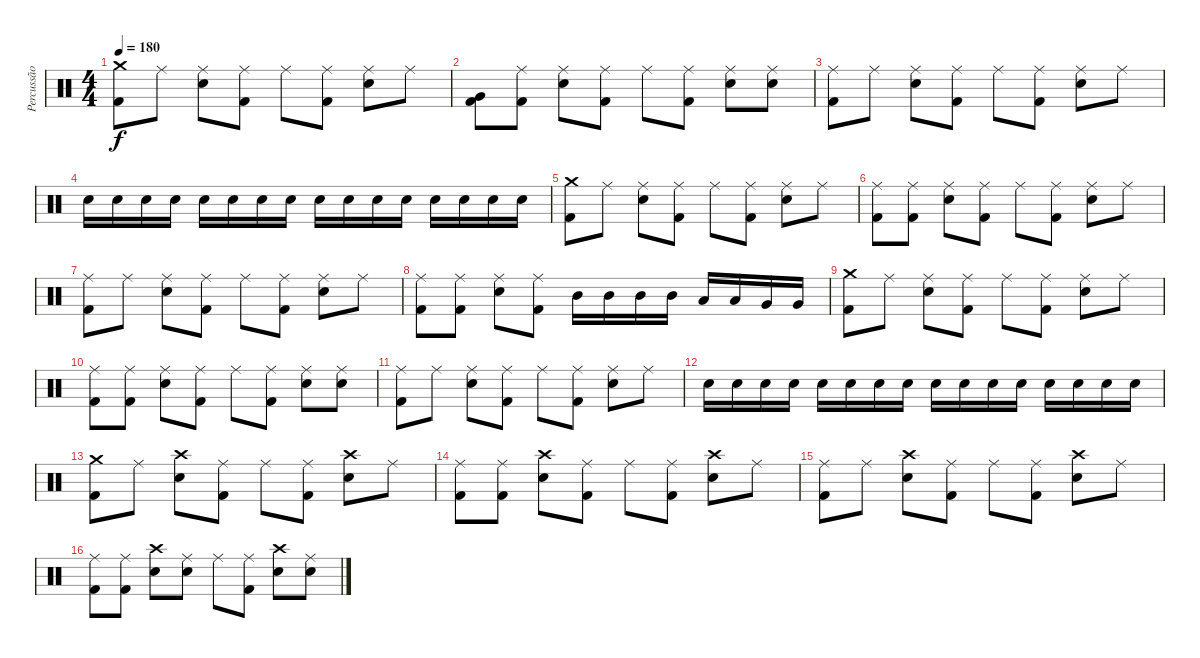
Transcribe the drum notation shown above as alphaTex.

\track ("Percussão" "Percussão") {instrument percussion}
\staff {score}
\articulation defaults
\ts (4 4)
\tempo 180
\clef neutral
\ks c
("Crash medium (hit)" "Kick (hit) 2").8{dy f} "Ride (middle)".8 ("Ride (middle)" "Electric Snare (hit)").8 ("Ride (middle)" "Kick (hit) 2").8 "Ride (middle)".8 ("Ride (middle)" "Kick (hit) 2").8 ("Ride (middle)" "Electric Snare (hit)").8 "Ride (middle)".8 |
("Very Low Tom (hit)" "Kick (hit) 2").8 ("Ride (middle)" "Kick (hit) 2").8 ("Ride (middle)" "Electric Snare (hit)").8 ("Ride (middle)" "Kick (hit) 2").8 "Ride (middle)".8 ("Ride (middle)" "Kick (hit) 2").8 ("Ride (middle)" "Electric Snare (hit)").8 ("Ride (middle)" "Electric Snare (hit)").8 |
("Ride (middle)" "Kick (hit) 2").8 "Ride (middle)".8 ("Ride (middle)" "Electric Snare (hit)").8 ("Ride (middle)" "Kick (hit) 2").8 "Ride (middle)".8 ("Ride (middle)" "Kick (hit) 2").8 ("Ride (middle)" "Electric Snare (hit)").8 "Ride (middle)".8 |
"Electric Snare (hit)".16 "Electric Snare (hit)".16 "Electric Snare (hit)".16 "Electric Snare (hit)".16 "Electric Snare (hit)".16 "Electric Snare (hit)".16 "Electric Snare (hit)".16 "Electric Snare (hit)".16 "Electric Snare (hit)".16 "Electric Snare (hit)".16 "Electric Snare (hit)".16 "Electric Snare (hit)".16 "Electric Snare (hit)".16 "Electric Snare (hit)".16 "Electric Snare (hit)".16 "Electric Snare (hit)".16 |
("Crash medium (hit)" "Kick (hit) 2").8 "Ride (middle)".8 ("Ride (middle)" "Electric Snare (hit)").8 ("Ride (middle)" "Kick (hit) 2").8 "Ride (middle)".8 ("Ride (middle)" "Kick (hit) 2").8 ("Ride (middle)" "Electric Snare (hit)").8 "Ride (middle)".8 |
("Ride (middle)" "Kick (hit) 2").8 ("Ride (middle)" "Kick (hit) 2").8 ("Ride (middle)" "Electric Snare (hit)").8 ("Ride (middle)" "Kick (hit) 2").8 "Ride (middle)".8 ("Ride (middle)" "Kick (hit) 2").8 ("Ride (middle)" "Electric Snare (hit)").8 "Ride (middle)".8 |
("Ride (middle)" "Kick (hit) 2").8 "Ride (middle)".8 ("Ride (middle)" "Electric Snare (hit)").8 ("Ride (middle)" "Kick (hit) 2").8 "Ride (middle)".8 ("Ride (middle)" "Kick (hit) 2").8 ("Ride (middle)" "Electric Snare (hit)").8 "Ride (middle)".8 |
("Ride (middle)" "Kick (hit) 2").8 ("Ride (middle)" "Kick (hit) 2").8 ("Ride (middle)" "Electric Snare (hit)").8 ("Ride (middle)" "Kick (hit) 2").8 "Mid Tom (hit)".16 "Mid Tom (hit)".16 "Mid Tom (hit)".16 "Mid Tom (hit)".16 "Low Tom (hit)".16 "Low Tom (hit)".16 "Very Low Tom (hit)".16 "Very Low Tom (hit)".16 |
("Crash medium (hit)" "Kick (hit) 2").8 "Ride (middle)".8 ("Ride (middle)" "Electric Snare (hit)").8 ("Ride (middle)" "Kick (hit) 2").8 "Ride (middle)".8 ("Ride (middle)" "Kick (hit) 2").8 ("Ride (middle)" "Electric Snare (hit)").8 "Ride (middle)".8 |
("Ride (middle)" "Kick (hit) 2").8 ("Ride (middle)" "Kick (hit) 2").8 ("Ride (middle)" "Electric Snare (hit)").8 ("Ride (middle)" "Kick (hit) 2").8 "Ride (middle)".8 ("Ride (middle)" "Kick (hit) 2").8 ("Ride (middle)" "Electric Snare (hit)").8 ("Ride (middle)" "Electric Snare (hit)").8 |
("Ride (middle)" "Kick (hit) 2").8 "Ride (middle)".8 ("Ride (middle)" "Electric Snare (hit)").8 ("Ride (middle)" "Kick (hit) 2").8 "Ride (middle)".8 ("Ride (middle)" "Kick (hit) 2").8 ("Ride (middle)" "Electric Snare (hit)").8 "Ride (middle)".8 |
"Electric Snare (hit)".16 "Electric Snare (hit)".16 "Electric Snare (hit)".16 "Electric Snare (hit)".16 "Electric Snare (hit)".16 "Electric Snare (hit)".16 "Electric Snare (hit)".16 "Electric Snare (hit)".16 "Electric Snare (hit)".16 "Electric Snare (hit)".16 "Electric Snare (hit)".16 "Electric Snare (hit)".16 "Electric Snare (hit)".16 "Electric Snare (hit)".16 "Electric Snare (hit)".16 "Electric Snare (hit)".16 |
("Crash medium (hit)" "Kick (hit) 2").8 "Ride (middle)".8 ("Crash high (hit)" "Electric Snare (hit)").8 ("Ride (middle)" "Kick (hit) 2").8 "Ride (middle)".8 ("Ride (middle)" "Kick (hit) 2").8 ("Crash high (hit)" "Electric Snare (hit)").8 "Ride (middle)".8 |
("Ride (middle)" "Kick (hit) 2").8 ("Ride (middle)" "Kick (hit) 2").8 ("Crash high (hit)" "Electric Snare (hit)").8 ("Ride (middle)" "Kick (hit) 2").8 "Ride (middle)".8 ("Ride (middle)" "Kick (hit) 2").8 ("Crash high (hit)" "Electric Snare (hit)").8 "Ride (middle)".8 |
("Ride (middle)" "Kick (hit) 2").8 "Ride (middle)".8 ("Crash high (hit)" "Electric Snare (hit)").8 ("Ride (middle)" "Kick (hit) 2").8 "Ride (middle)".8 ("Ride (middle)" "Kick (hit) 2").8 ("Crash high (hit)" "Electric Snare (hit)").8 "Ride (middle)".8 |
("Ride (middle)" "Kick (hit) 2").8 ("Ride (middle)" "Kick (hit) 2").8 ("Crash high (hit)" "Electric Snare (hit)").8 ("Ride (middle)" "Electric Snare (hit)").8 "Ride (middle)".8 ("Ride (middle)" "Kick (hit) 2").8 ("Crash high (hit)" "Electric Snare (hit)").8 ("Ride (middle)" "Electric Snare (hit)").8
